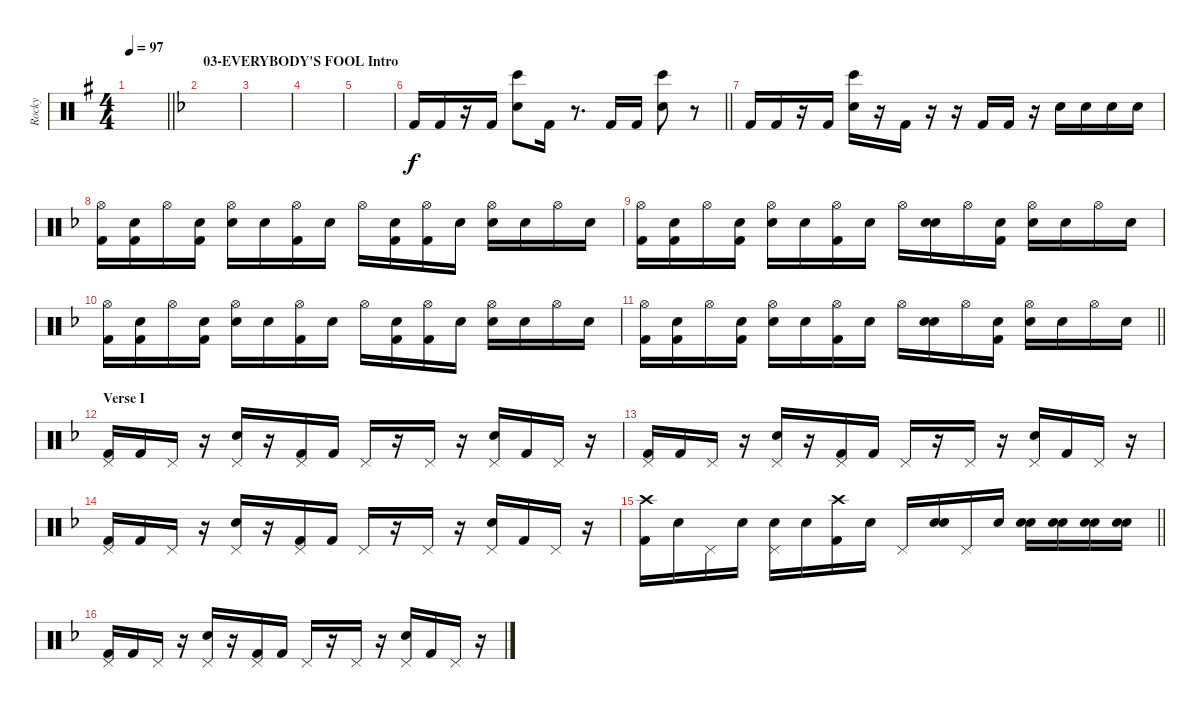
\track ("Rocky" "Rocky") {instrument percussion}
\staff {score}
\articulation defaults
\ts (4 4)
\tempo 97
\clef neutral
\barLineRight lightlight
\ks g
|
\section ("" "03-EVERYBODY'S FOOL Intro")
\ks f
|
|
|
|
\barLineRight lightlight "Kick (hit) 2".16{volume 11} "Kick (hit) 2".16
r.16 "Kick (hit) 2".16 ("Bongo High (hit)" "Snare (hit) 2").8 "Kick (hit) 2".16 r.8{d} "Kick (hit) 2".16 "Kick (hit) 2".16 ("Bongo High (hit)" "Snare (hit) 2").8 r.8 |
"Kick (hit) 2".16 "Kick (hit) 2".16 r.16 "Kick (hit) 2".16 ("Bongo High (hit)" "Snare (hit) 2").16 r.16 "Kick (hit) 2".16 r.16 r.16 "Kick (hit) 2".16 "Kick (hit) 2".16 r.16{volume 13} "Snare (hit) 2".16 "Snare (hit) 2".16 "Snare (hit) 2".16 "Snare (hit) 2".16 |
("Hi-Hat (open)" "Kick (hit) 2").16 ("Snare (hit)" "Kick (hit) 2").16 "Hi-Hat (open)".16 ("Snare (hit)" "Kick (hit) 2").16 ("Hi-Hat (open)" "Snare (hit) 2").16 "Snare (hit)".16 ("Hi-Hat (open)" "Kick (hit) 2").16 "Snare (hit)".16 "Hi-Hat (open)".16 ("Snare (hit)" "Kick (hit) 2").16 ("Hi-Hat (open)" "Kick (hit) 2").16 "Snare (hit)".16 ("Hi-Hat (open)" "Snare (hit) 2").16 "Snare (hit)".16 "Hi-Hat (open)".16 "Snare (hit)".16 |
("Hi-Hat (open)" "Kick (hit) 2").16 ("Snare (hit)" "Kick (hit) 2").16 "Hi-Hat (open)".16 ("Snare (hit)" "Kick (hit) 2").16 ("Hi-Hat (open)" "Snare (hit) 2").16 "Snare (hit)".16 ("Hi-Hat (open)" "Kick (hit) 2").16 "Snare (hit)".16 "Hi-Hat (open)".16 ("Snare (hit)" "Snare (hit) 2").16 "Hi-Hat (open)".16 ("Snare (hit)" "Kick (hit) 2").16 ("Hi-Hat (open)" "Snare (hit) 2").16 "Snare (hit)".16 "Hi-Hat (open)".16 "Snare (hit)".16 |
("Hi-Hat (open)" "Kick (hit) 2").16 ("Snare (hit)" "Kick (hit) 2").16 "Hi-Hat (open)".16 ("Snare (hit)" "Kick (hit) 2").16 ("Hi-Hat (open)" "Snare (hit) 2").16 "Snare (hit)".16 ("Hi-Hat (open)" "Kick (hit) 2").16 "Snare (hit)".16 "Hi-Hat (open)".16 ("Snare (hit)" "Kick (hit) 2").16 ("Hi-Hat (open)" "Kick (hit) 2").16 "Snare (hit)".16 ("Hi-Hat (open)" "Snare (hit) 2").16 "Snare (hit)".16 "Hi-Hat (open)".16 "Snare (hit)".16 |
\barLineRight lightlight
("Hi-Hat (open)" "Kick (hit) 2").16 ("Snare (hit)" "Kick (hit) 2").16 "Hi-Hat (open)".16 ("Snare (hit)" "Kick (hit) 2").16 ("Hi-Hat (open)" "Snare (hit) 2").16 "Snare (hit)".16 ("Hi-Hat (open)" "Kick (hit) 2").16 "Snare (hit)".16 "Hi-Hat (open)".16 ("Snare (hit)" "Snare (hit) 2").16 "Hi-Hat (open)".16 ("Snare (hit)" "Kick (hit) 2").16 ("Hi-Hat (open)" "Snare (hit) 2").16 "Snare (hit)".16 "Hi-Hat (open)".16 "Snare (hit)".16 |
\section ("" "Verse I")
("Pedal Hi-Hat (hit)" "Kick (hit) 2").16 "Kick (hit) 2".16 "Pedal Hi-Hat (hit)".16 r.16 ("Pedal Hi-Hat (hit)" "Electric Snare (hit)").16 r.16 ("Pedal Hi-Hat (hit)" "Kick (hit) 2").16 "Kick (hit) 2".16 "Pedal Hi-Hat (hit)".16 r.16 "Pedal Hi-Hat (hit)".16 r.16 ("Pedal Hi-Hat (hit)" "Electric Snare (hit)").16 "Kick (hit) 2".16 "Pedal Hi-Hat (hit)".16 r.16 |
("Pedal Hi-Hat (hit)" "Kick (hit) 2").16 "Kick (hit) 2".16 "Pedal Hi-Hat (hit)".16 r.16 ("Pedal Hi-Hat (hit)" "Electric Snare (hit)").16 r.16 ("Pedal Hi-Hat (hit)" "Kick (hit) 2").16 "Kick (hit) 2".16 "Pedal Hi-Hat (hit)".16 r.16 "Pedal Hi-Hat (hit)".16 r.16 ("Pedal Hi-Hat (hit)" "Electric Snare (hit)").16 "Kick (hit) 2".16 "Pedal Hi-Hat (hit)".16 r.16 |
("Pedal Hi-Hat (hit)" "Kick (hit) 2").16 "Kick (hit) 2".16 "Pedal Hi-Hat (hit)".16 r.16 ("Pedal Hi-Hat (hit)" "Electric Snare (hit)").16 r.16 ("Pedal Hi-Hat (hit)" "Kick (hit) 2").16 "Kick (hit) 2".16 "Pedal Hi-Hat (hit)".16 r.16 "Pedal Hi-Hat (hit)".16 r.16 ("Pedal Hi-Hat (hit)" "Electric Snare (hit)").16 "Kick (hit) 2".16 "Pedal Hi-Hat (hit)".16 r.16 |
\barLineRight lightlight
("Crash high (hit)" "Kick (hit) 2").16 "Snare (hit)".16 "Pedal Hi-Hat (hit)".16 "Snare (hit)".16 ("Pedal Hi-Hat (hit)" "Electric Snare (hit)").16 "Snare (hit)".16 ("Crash high (hit)" "Kick (hit) 2").16 "Snare (hit)".16 "Pedal Hi-Hat (hit)".16 ("Snare (hit)" "Electric Snare (hit)").16 "Pedal Hi-Hat (hit)".16 "Snare (hit)".16 ("Snare (hit)" "Snare (hit) 2").16 ("Snare (hit)" "Snare (hit) 2").16 ("Snare (hit)" "Snare (hit) 2").16 ("Snare (hit)" "Snare (hit) 2").16 |
("Pedal Hi-Hat (hit)" "Kick (hit) 2").16 "Kick (hit) 2".16 "Pedal Hi-Hat (hit)".16 r.16 ("Pedal Hi-Hat (hit)" "Electric Snare (hit)").16 r.16 ("Pedal Hi-Hat (hit)" "Kick (hit) 2").16 "Kick (hit) 2".16 "Pedal Hi-Hat (hit)".16 r.16 "Pedal Hi-Hat (hit)".16 r.16 ("Pedal Hi-Hat (hit)" "Electric Snare (hit)").16 "Kick (hit) 2".16 "Pedal Hi-Hat (hit)".16 r.16
